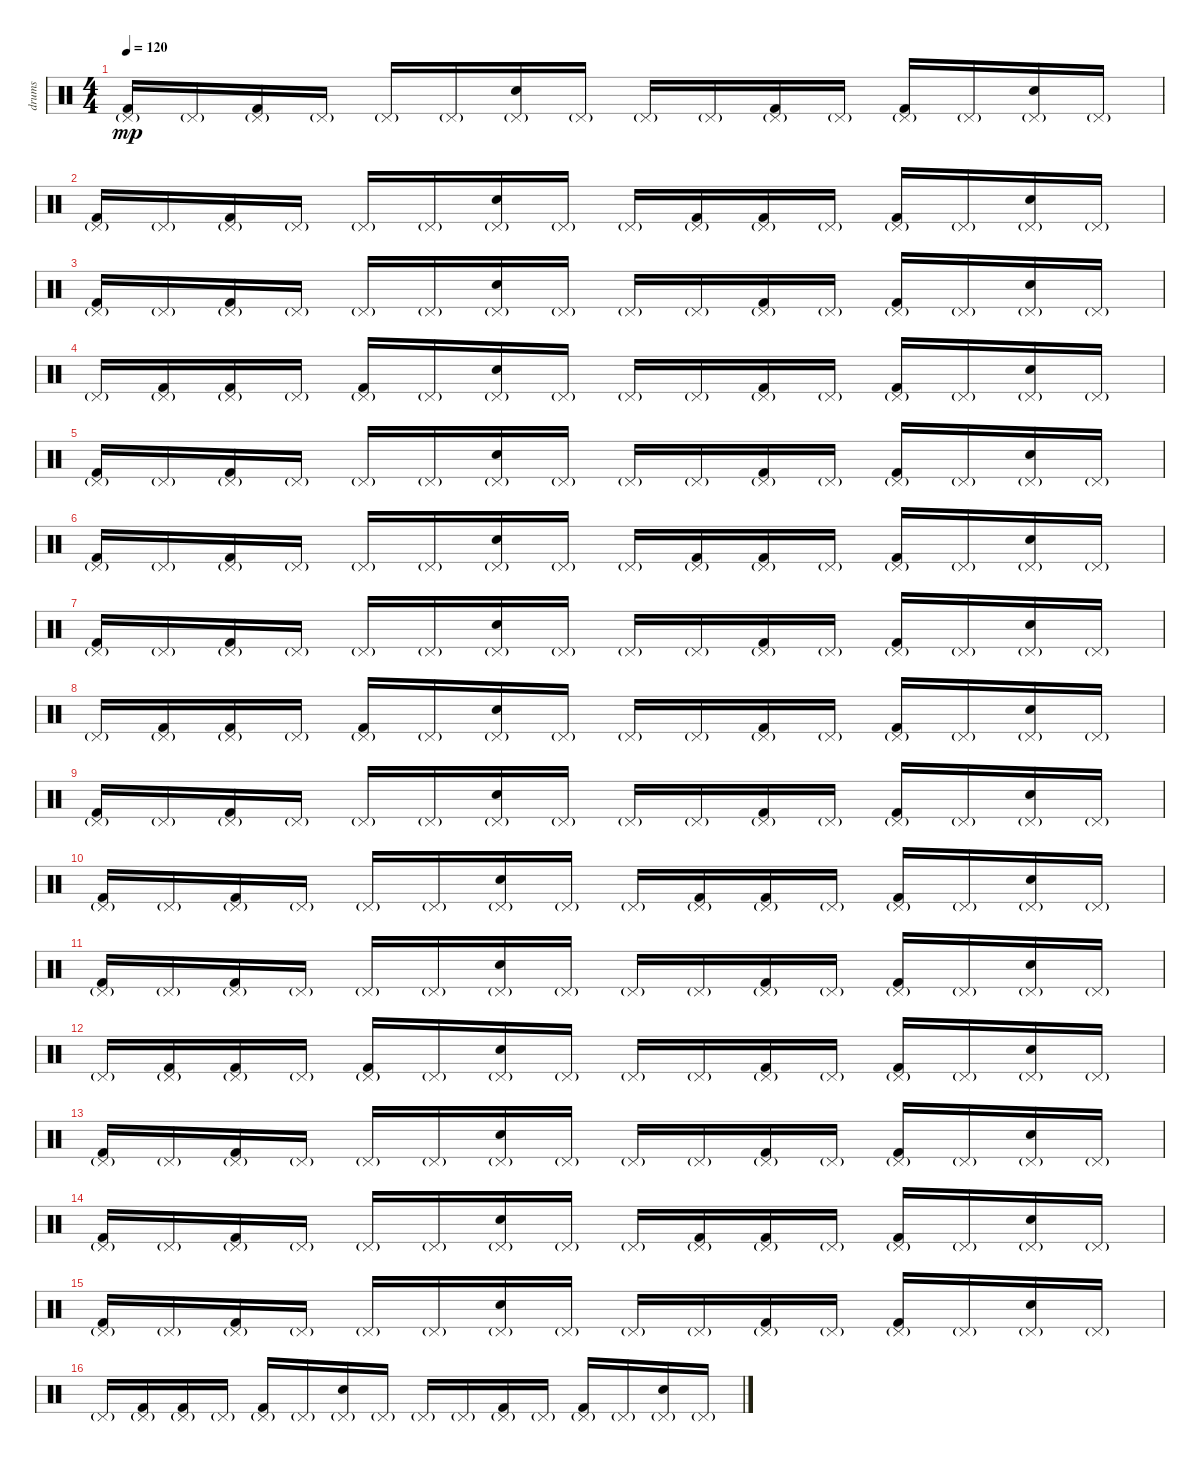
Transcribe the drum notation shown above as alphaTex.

\track ("drums" "drums") {instrument percussion}
\staff {score}
\articulation defaults
\ts (4 4)
\tempo 120
\clef neutral
\ks c
("Kick (hit) 2" "Pedal Hi-Hat (hit)"{g}).16{dy mp} "Pedal Hi-Hat (hit)"{g}.16 ("Kick (hit) 2" "Pedal Hi-Hat (hit)"{g}).16 "Pedal Hi-Hat (hit)"{g}.16 "Pedal Hi-Hat (hit)"{g}.16 "Pedal Hi-Hat (hit)"{g}.16 ("Hand Clap (hit)" "Pedal Hi-Hat (hit)"{g}).16 "Pedal Hi-Hat (hit)"{g}.16 "Pedal Hi-Hat (hit)"{g}.16 "Pedal Hi-Hat (hit)"{g}.16 ("Kick (hit) 2" "Pedal Hi-Hat (hit)"{g}).16 "Pedal Hi-Hat (hit)"{g}.16 ("Kick (hit) 2" "Pedal Hi-Hat (hit)"{g}).16 "Pedal Hi-Hat (hit)"{g}.16 ("Hand Clap (hit)" "Pedal Hi-Hat (hit)"{g}).16 "Pedal Hi-Hat (hit)"{g}.16 |
("Kick (hit) 2" "Pedal Hi-Hat (hit)"{g}).16 "Pedal Hi-Hat (hit)"{g}.16 ("Kick (hit) 2" "Pedal Hi-Hat (hit)"{g}).16 "Pedal Hi-Hat (hit)"{g}.16 "Pedal Hi-Hat (hit)"{g}.16 "Pedal Hi-Hat (hit)"{g}.16 ("Hand Clap (hit)" "Pedal Hi-Hat (hit)"{g}).16 "Pedal Hi-Hat (hit)"{g}.16 "Pedal Hi-Hat (hit)"{g}.16 ("Kick (hit) 2" "Pedal Hi-Hat (hit)"{g}).16 ("Kick (hit) 2" "Pedal Hi-Hat (hit)"{g}).16 "Pedal Hi-Hat (hit)"{g}.16 ("Kick (hit) 2" "Pedal Hi-Hat (hit)"{g}).16 "Pedal Hi-Hat (hit)"{g}.16 ("Hand Clap (hit)" "Pedal Hi-Hat (hit)"{g}).16 "Pedal Hi-Hat (hit)"{g}.16 |
("Kick (hit) 2" "Pedal Hi-Hat (hit)"{g}).16 "Pedal Hi-Hat (hit)"{g}.16 ("Kick (hit) 2" "Pedal Hi-Hat (hit)"{g}).16 "Pedal Hi-Hat (hit)"{g}.16 "Pedal Hi-Hat (hit)"{g}.16 "Pedal Hi-Hat (hit)"{g}.16 ("Hand Clap (hit)" "Pedal Hi-Hat (hit)"{g}).16 "Pedal Hi-Hat (hit)"{g}.16 "Pedal Hi-Hat (hit)"{g}.16 "Pedal Hi-Hat (hit)"{g}.16 ("Kick (hit) 2" "Pedal Hi-Hat (hit)"{g}).16 "Pedal Hi-Hat (hit)"{g}.16 ("Kick (hit) 2" "Pedal Hi-Hat (hit)"{g}).16 "Pedal Hi-Hat (hit)"{g}.16 ("Hand Clap (hit)" "Pedal Hi-Hat (hit)"{g}).16 "Pedal Hi-Hat (hit)"{g}.16 |
"Pedal Hi-Hat (hit)"{g}.16 ("Kick (hit) 2" "Pedal Hi-Hat (hit)"{g}).16 ("Kick (hit) 2" "Pedal Hi-Hat (hit)"{g}).16 "Pedal Hi-Hat (hit)"{g}.16 ("Kick (hit) 2" "Pedal Hi-Hat (hit)"{g}).16 "Pedal Hi-Hat (hit)"{g}.16 ("Hand Clap (hit)" "Pedal Hi-Hat (hit)"{g}).16 "Pedal Hi-Hat (hit)"{g}.16 "Pedal Hi-Hat (hit)"{g}.16 "Pedal Hi-Hat (hit)"{g}.16 ("Kick (hit) 2" "Pedal Hi-Hat (hit)"{g}).16 "Pedal Hi-Hat (hit)"{g}.16 ("Kick (hit) 2" "Pedal Hi-Hat (hit)"{g}).16 "Pedal Hi-Hat (hit)"{g}.16 ("Hand Clap (hit)" "Pedal Hi-Hat (hit)"{g}).16 "Pedal Hi-Hat (hit)"{g}.16 |
("Kick (hit) 2" "Pedal Hi-Hat (hit)"{g}).16 "Pedal Hi-Hat (hit)"{g}.16 ("Kick (hit) 2" "Pedal Hi-Hat (hit)"{g}).16 "Pedal Hi-Hat (hit)"{g}.16 "Pedal Hi-Hat (hit)"{g}.16 "Pedal Hi-Hat (hit)"{g}.16 ("Hand Clap (hit)" "Pedal Hi-Hat (hit)"{g}).16 "Pedal Hi-Hat (hit)"{g}.16 "Pedal Hi-Hat (hit)"{g}.16 "Pedal Hi-Hat (hit)"{g}.16 ("Kick (hit) 2" "Pedal Hi-Hat (hit)"{g}).16 "Pedal Hi-Hat (hit)"{g}.16 ("Kick (hit) 2" "Pedal Hi-Hat (hit)"{g}).16 "Pedal Hi-Hat (hit)"{g}.16 ("Hand Clap (hit)" "Pedal Hi-Hat (hit)"{g}).16 "Pedal Hi-Hat (hit)"{g}.16 |
("Kick (hit) 2" "Pedal Hi-Hat (hit)"{g}).16 "Pedal Hi-Hat (hit)"{g}.16 ("Kick (hit) 2" "Pedal Hi-Hat (hit)"{g}).16 "Pedal Hi-Hat (hit)"{g}.16 "Pedal Hi-Hat (hit)"{g}.16 "Pedal Hi-Hat (hit)"{g}.16 ("Hand Clap (hit)" "Pedal Hi-Hat (hit)"{g}).16 "Pedal Hi-Hat (hit)"{g}.16 "Pedal Hi-Hat (hit)"{g}.16 ("Kick (hit) 2" "Pedal Hi-Hat (hit)"{g}).16 ("Kick (hit) 2" "Pedal Hi-Hat (hit)"{g}).16 "Pedal Hi-Hat (hit)"{g}.16 ("Kick (hit) 2" "Pedal Hi-Hat (hit)"{g}).16 "Pedal Hi-Hat (hit)"{g}.16 ("Hand Clap (hit)" "Pedal Hi-Hat (hit)"{g}).16 "Pedal Hi-Hat (hit)"{g}.16 |
("Kick (hit) 2" "Pedal Hi-Hat (hit)"{g}).16 "Pedal Hi-Hat (hit)"{g}.16 ("Kick (hit) 2" "Pedal Hi-Hat (hit)"{g}).16 "Pedal Hi-Hat (hit)"{g}.16 "Pedal Hi-Hat (hit)"{g}.16 "Pedal Hi-Hat (hit)"{g}.16 ("Hand Clap (hit)" "Pedal Hi-Hat (hit)"{g}).16 "Pedal Hi-Hat (hit)"{g}.16 "Pedal Hi-Hat (hit)"{g}.16 "Pedal Hi-Hat (hit)"{g}.16 ("Kick (hit) 2" "Pedal Hi-Hat (hit)"{g}).16 "Pedal Hi-Hat (hit)"{g}.16 ("Kick (hit) 2" "Pedal Hi-Hat (hit)"{g}).16 "Pedal Hi-Hat (hit)"{g}.16 ("Hand Clap (hit)" "Pedal Hi-Hat (hit)"{g}).16 "Pedal Hi-Hat (hit)"{g}.16 |
"Pedal Hi-Hat (hit)"{g}.16 ("Kick (hit) 2" "Pedal Hi-Hat (hit)"{g}).16 ("Kick (hit) 2" "Pedal Hi-Hat (hit)"{g}).16 "Pedal Hi-Hat (hit)"{g}.16 ("Kick (hit) 2" "Pedal Hi-Hat (hit)"{g}).16 "Pedal Hi-Hat (hit)"{g}.16 ("Hand Clap (hit)" "Pedal Hi-Hat (hit)"{g}).16 "Pedal Hi-Hat (hit)"{g}.16 "Pedal Hi-Hat (hit)"{g}.16 "Pedal Hi-Hat (hit)"{g}.16 ("Kick (hit) 2" "Pedal Hi-Hat (hit)"{g}).16 "Pedal Hi-Hat (hit)"{g}.16 ("Kick (hit) 2" "Pedal Hi-Hat (hit)"{g}).16 "Pedal Hi-Hat (hit)"{g}.16 ("Hand Clap (hit)" "Pedal Hi-Hat (hit)"{g}).16 "Pedal Hi-Hat (hit)"{g}.16 |
("Kick (hit) 2" "Pedal Hi-Hat (hit)"{g}).16 "Pedal Hi-Hat (hit)"{g}.16 ("Kick (hit) 2" "Pedal Hi-Hat (hit)"{g}).16 "Pedal Hi-Hat (hit)"{g}.16 "Pedal Hi-Hat (hit)"{g}.16 "Pedal Hi-Hat (hit)"{g}.16 ("Hand Clap (hit)" "Pedal Hi-Hat (hit)"{g}).16 "Pedal Hi-Hat (hit)"{g}.16 "Pedal Hi-Hat (hit)"{g}.16 "Pedal Hi-Hat (hit)"{g}.16 ("Kick (hit) 2" "Pedal Hi-Hat (hit)"{g}).16 "Pedal Hi-Hat (hit)"{g}.16 ("Kick (hit) 2" "Pedal Hi-Hat (hit)"{g}).16 "Pedal Hi-Hat (hit)"{g}.16 ("Hand Clap (hit)" "Pedal Hi-Hat (hit)"{g}).16 "Pedal Hi-Hat (hit)"{g}.16 |
("Kick (hit) 2" "Pedal Hi-Hat (hit)"{g}).16 "Pedal Hi-Hat (hit)"{g}.16 ("Kick (hit) 2" "Pedal Hi-Hat (hit)"{g}).16 "Pedal Hi-Hat (hit)"{g}.16 "Pedal Hi-Hat (hit)"{g}.16 "Pedal Hi-Hat (hit)"{g}.16 ("Hand Clap (hit)" "Pedal Hi-Hat (hit)"{g}).16 "Pedal Hi-Hat (hit)"{g}.16 "Pedal Hi-Hat (hit)"{g}.16 ("Kick (hit) 2" "Pedal Hi-Hat (hit)"{g}).16 ("Kick (hit) 2" "Pedal Hi-Hat (hit)"{g}).16 "Pedal Hi-Hat (hit)"{g}.16 ("Kick (hit) 2" "Pedal Hi-Hat (hit)"{g}).16 "Pedal Hi-Hat (hit)"{g}.16 ("Hand Clap (hit)" "Pedal Hi-Hat (hit)"{g}).16 "Pedal Hi-Hat (hit)"{g}.16 |
("Kick (hit) 2" "Pedal Hi-Hat (hit)"{g}).16 "Pedal Hi-Hat (hit)"{g}.16 ("Kick (hit) 2" "Pedal Hi-Hat (hit)"{g}).16 "Pedal Hi-Hat (hit)"{g}.16 "Pedal Hi-Hat (hit)"{g}.16 "Pedal Hi-Hat (hit)"{g}.16 ("Hand Clap (hit)" "Pedal Hi-Hat (hit)"{g}).16 "Pedal Hi-Hat (hit)"{g}.16 "Pedal Hi-Hat (hit)"{g}.16 "Pedal Hi-Hat (hit)"{g}.16 ("Kick (hit) 2" "Pedal Hi-Hat (hit)"{g}).16 "Pedal Hi-Hat (hit)"{g}.16 ("Kick (hit) 2" "Pedal Hi-Hat (hit)"{g}).16 "Pedal Hi-Hat (hit)"{g}.16 ("Hand Clap (hit)" "Pedal Hi-Hat (hit)"{g}).16 "Pedal Hi-Hat (hit)"{g}.16 |
"Pedal Hi-Hat (hit)"{g}.16 ("Kick (hit) 2" "Pedal Hi-Hat (hit)"{g}).16 ("Kick (hit) 2" "Pedal Hi-Hat (hit)"{g}).16 "Pedal Hi-Hat (hit)"{g}.16 ("Kick (hit) 2" "Pedal Hi-Hat (hit)"{g}).16 "Pedal Hi-Hat (hit)"{g}.16 ("Hand Clap (hit)" "Pedal Hi-Hat (hit)"{g}).16 "Pedal Hi-Hat (hit)"{g}.16 "Pedal Hi-Hat (hit)"{g}.16 "Pedal Hi-Hat (hit)"{g}.16 ("Kick (hit) 2" "Pedal Hi-Hat (hit)"{g}).16 "Pedal Hi-Hat (hit)"{g}.16 ("Kick (hit) 2" "Pedal Hi-Hat (hit)"{g}).16 "Pedal Hi-Hat (hit)"{g}.16 ("Hand Clap (hit)" "Pedal Hi-Hat (hit)"{g}).16 "Pedal Hi-Hat (hit)"{g}.16 |
("Kick (hit) 2" "Pedal Hi-Hat (hit)"{g}).16 "Pedal Hi-Hat (hit)"{g}.16 ("Kick (hit) 2" "Pedal Hi-Hat (hit)"{g}).16 "Pedal Hi-Hat (hit)"{g}.16 "Pedal Hi-Hat (hit)"{g}.16 "Pedal Hi-Hat (hit)"{g}.16 ("Hand Clap (hit)" "Pedal Hi-Hat (hit)"{g}).16 "Pedal Hi-Hat (hit)"{g}.16 "Pedal Hi-Hat (hit)"{g}.16 "Pedal Hi-Hat (hit)"{g}.16 ("Kick (hit) 2" "Pedal Hi-Hat (hit)"{g}).16 "Pedal Hi-Hat (hit)"{g}.16 ("Kick (hit) 2" "Pedal Hi-Hat (hit)"{g}).16 "Pedal Hi-Hat (hit)"{g}.16 ("Hand Clap (hit)" "Pedal Hi-Hat (hit)"{g}).16 "Pedal Hi-Hat (hit)"{g}.16 |
("Kick (hit) 2" "Pedal Hi-Hat (hit)"{g}).16 "Pedal Hi-Hat (hit)"{g}.16 ("Kick (hit) 2" "Pedal Hi-Hat (hit)"{g}).16 "Pedal Hi-Hat (hit)"{g}.16 "Pedal Hi-Hat (hit)"{g}.16 "Pedal Hi-Hat (hit)"{g}.16 ("Hand Clap (hit)" "Pedal Hi-Hat (hit)"{g}).16 "Pedal Hi-Hat (hit)"{g}.16 "Pedal Hi-Hat (hit)"{g}.16 ("Kick (hit) 2" "Pedal Hi-Hat (hit)"{g}).16 ("Kick (hit) 2" "Pedal Hi-Hat (hit)"{g}).16 "Pedal Hi-Hat (hit)"{g}.16 ("Kick (hit) 2" "Pedal Hi-Hat (hit)"{g}).16 "Pedal Hi-Hat (hit)"{g}.16 ("Hand Clap (hit)" "Pedal Hi-Hat (hit)"{g}).16 "Pedal Hi-Hat (hit)"{g}.16 |
("Kick (hit) 2" "Pedal Hi-Hat (hit)"{g}).16 "Pedal Hi-Hat (hit)"{g}.16 ("Kick (hit) 2" "Pedal Hi-Hat (hit)"{g}).16 "Pedal Hi-Hat (hit)"{g}.16 "Pedal Hi-Hat (hit)"{g}.16 "Pedal Hi-Hat (hit)"{g}.16 ("Hand Clap (hit)" "Pedal Hi-Hat (hit)"{g}).16 "Pedal Hi-Hat (hit)"{g}.16 "Pedal Hi-Hat (hit)"{g}.16 "Pedal Hi-Hat (hit)"{g}.16 ("Kick (hit) 2" "Pedal Hi-Hat (hit)"{g}).16 "Pedal Hi-Hat (hit)"{g}.16 ("Kick (hit) 2" "Pedal Hi-Hat (hit)"{g}).16 "Pedal Hi-Hat (hit)"{g}.16 ("Hand Clap (hit)" "Pedal Hi-Hat (hit)"{g}).16 "Pedal Hi-Hat (hit)"{g}.16 |
"Pedal Hi-Hat (hit)"{g}.16 ("Kick (hit) 2" "Pedal Hi-Hat (hit)"{g}).16 ("Kick (hit) 2" "Pedal Hi-Hat (hit)"{g}).16 "Pedal Hi-Hat (hit)"{g}.16 ("Kick (hit) 2" "Pedal Hi-Hat (hit)"{g}).16 "Pedal Hi-Hat (hit)"{g}.16 ("Hand Clap (hit)" "Pedal Hi-Hat (hit)"{g}).16 "Pedal Hi-Hat (hit)"{g}.16 "Pedal Hi-Hat (hit)"{g}.16 "Pedal Hi-Hat (hit)"{g}.16 ("Kick (hit) 2" "Pedal Hi-Hat (hit)"{g}).16 "Pedal Hi-Hat (hit)"{g}.16 ("Kick (hit) 2" "Pedal Hi-Hat (hit)"{g}).16 "Pedal Hi-Hat (hit)"{g}.16 ("Hand Clap (hit)" "Pedal Hi-Hat (hit)"{g}).16 "Pedal Hi-Hat (hit)"{g}.16
